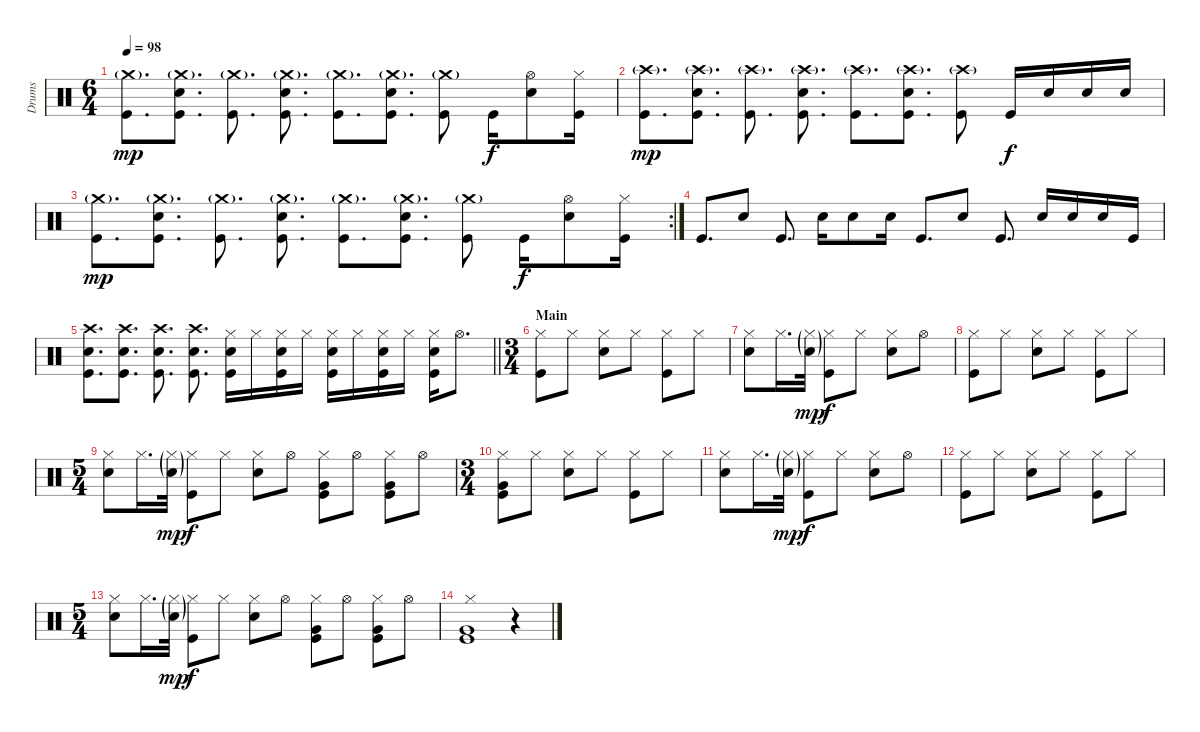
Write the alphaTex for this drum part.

\track ("Drums" "Drums") {instrument percussion}
\staff {score}
\articulation defaults
\ts (6 4)
\tempo 98
\clef neutral
\ks c
("Crash medium (hit)"{g} "Kick (hit)").8{d dy mp} ("Crash medium (hit)"{g} "Electric Snare (hit)" "Kick (hit)").8{d} ("Crash medium (hit)"{g} "Kick (hit)").8{d} ("Crash medium (hit)"{g} "Electric Snare (hit)" "Kick (hit)").8{d} ("Crash medium (hit)"{g} "Kick (hit)").8{d} ("Crash medium (hit)"{g} "Electric Snare (hit)" "Kick (hit)").8{d} ("Crash medium (hit)"{g} "Kick (hit)").8 "Kick (hit)".16{dy f} ("Hi-Hat (open)" "Electric Snare (hit)").8 ("Hi-Hat (closed)" "Kick (hit)").16 |
("Crash high (hit)"{g} "Kick (hit)").8{d dy mp} ("Crash high (hit)"{g} "Electric Snare (hit)" "Kick (hit)").8{d} ("Crash high (hit)"{g} "Kick (hit)").8{d} ("Crash high (hit)"{g} "Electric Snare (hit)" "Kick (hit)").8{d} ("Crash high (hit)"{g} "Kick (hit)").8{d} ("Crash high (hit)"{g} "Electric Snare (hit)" "Kick (hit)").8{d} ("Crash high (hit)"{g} "Kick (hit)").8 "Kick (hit)".16{dy f} "Electric Snare (hit)".16 "Electric Snare (hit)".16 "Electric Snare (hit)".16 |
\rc 2
("Crash medium (hit)"{g} "Kick (hit)").8{d dy mp} ("Crash medium (hit)"{g} "Electric Snare (hit)" "Kick (hit)").8{d} ("Crash medium (hit)"{g} "Kick (hit)").8{d} ("Crash medium (hit)"{g} "Electric Snare (hit)" "Kick (hit)").8{d} ("Crash medium (hit)"{g} "Kick (hit)").8{d} ("Crash medium (hit)"{g} "Electric Snare (hit)" "Kick (hit)").8{d} ("Crash medium (hit)"{g} "Kick (hit)").8 "Kick (hit)".16{dy f} ("Hi-Hat (open)" "Electric Snare (hit)").8 ("Hi-Hat (closed)" "Kick (hit)").16 |
"Kick (hit)".8{d} "Electric Snare (hit)".8 "Kick (hit)".8{d} "Electric Snare (hit)".16 "Electric Snare (hit)".8 "Electric Snare (hit)".16 "Kick (hit)".8{d} "Electric Snare (hit)".8 "Kick (hit)".8{d} "Electric Snare (hit)".16 "Electric Snare (hit)".16 "Electric Snare (hit)".16 "Kick (hit)".16 |
\barLineRight lightlight
("Crash high (hit)" "Electric Snare (hit)" "Kick (hit)").8{d} ("Crash high (hit)" "Electric Snare (hit)" "Kick (hit)").8{d} ("Crash high (hit)" "Electric Snare (hit)" "Kick (hit)").8{d} ("Crash high (hit)" "Electric Snare (hit)" "Kick (hit)").8{d} ("Hi-Hat (closed)" "Electric Snare (hit)" "Kick (hit)").16 "Hi-Hat (closed)".16 ("Hi-Hat (closed)" "Electric Snare (hit)" "Kick (hit)").16 "Hi-Hat (closed)".16 ("Hi-Hat (closed)" "Electric Snare (hit)" "Kick (hit)").16 "Hi-Hat (closed)".16 ("Hi-Hat (closed)" "Electric Snare (hit)" "Kick (hit)").16 "Hi-Hat (closed)".16 ("Hi-Hat (closed)" "Electric Snare (hit)" "Kick (hit)").16 "Hi-Hat (open)".8{d} |
\ts (3 4)
\section ("" "Main")
("Hi-Hat (closed)" "Kick (hit)").8 "Hi-Hat (closed)".8 ("Hi-Hat (closed)" "Electric Snare (hit)").8 "Hi-Hat (closed)".8 ("Hi-Hat (closed)" "Kick (hit)").8 "Hi-Hat (closed)".8 |
("Hi-Hat (closed)" "Electric Snare (hit)").8 "Hi-Hat (closed)".16{d} ("Hi-Hat (closed)"{g} "Electric Snare (hit)"{g}).32{dy mp} ("Hi-Hat (closed)" "Kick (hit)").8{dy f} "Hi-Hat (closed)".8 ("Hi-Hat (closed)" "Electric Snare (hit)").8 "Hi-Hat (open)".8 |
("Hi-Hat (closed)" "Kick (hit)").8 "Hi-Hat (closed)".8 ("Hi-Hat (closed)" "Electric Snare (hit)").8 "Hi-Hat (closed)".8 ("Hi-Hat (closed)" "Kick (hit)").8 "Hi-Hat (closed)".8 |
\ts (5 4)
("Hi-Hat (closed)" "Electric Snare (hit)").8 "Hi-Hat (closed)".16{d} ("Hi-Hat (closed)"{g} "Electric Snare (hit)"{g}).32{dy mp} ("Hi-Hat (closed)" "Kick (hit)").8{dy f} "Hi-Hat (closed)".8 ("Hi-Hat (closed)" "Electric Snare (hit)").8 "Hi-Hat (open)".8 ("Hi-Hat (closed)" "Very Low Tom (hit)" "Kick (hit)").8 "Hi-Hat (open)".8 ("Hi-Hat (closed)" "Very Low Tom (hit)" "Kick (hit)").8 "Hi-Hat (open)".8 |
\ts (3 4)
("Hi-Hat (closed)" "Very Low Tom (hit)" "Kick (hit)").8 "Hi-Hat (closed)".8 ("Hi-Hat (closed)" "Electric Snare (hit)").8 "Hi-Hat (closed)".8 ("Hi-Hat (closed)" "Kick (hit)").8 "Hi-Hat (closed)".8 |
("Hi-Hat (closed)" "Electric Snare (hit)").8 "Hi-Hat (closed)".16{d} ("Hi-Hat (closed)"{g} "Electric Snare (hit)"{g}).32{dy mp} ("Hi-Hat (closed)" "Kick (hit)").8{dy f} "Hi-Hat (closed)".8 ("Hi-Hat (closed)" "Electric Snare (hit)").8 "Hi-Hat (open)".8 |
("Hi-Hat (closed)" "Kick (hit)").8 "Hi-Hat (closed)".8 ("Hi-Hat (closed)" "Electric Snare (hit)").8 "Hi-Hat (closed)".8 ("Hi-Hat (closed)" "Kick (hit)").8 "Hi-Hat (closed)".8 |
\ts (5 4)
("Hi-Hat (closed)" "Electric Snare (hit)").8 "Hi-Hat (closed)".16{d} ("Hi-Hat (closed)"{g} "Electric Snare (hit)"{g}).32{dy mp} ("Hi-Hat (closed)" "Kick (hit)").8{dy f} "Hi-Hat (closed)".8 ("Hi-Hat (closed)" "Electric Snare (hit)").8 "Hi-Hat (open)".8 ("Hi-Hat (closed)" "Very Low Tom (hit)" "Kick (hit)").8 "Hi-Hat (open)".8 ("Hi-Hat (closed)" "Very Low Tom (hit)" "Kick (hit)").8 "Hi-Hat (open)".8 |
("Hi-Hat (closed)" "Very Low Tom (hit)" "Kick (hit)").1 r.4
